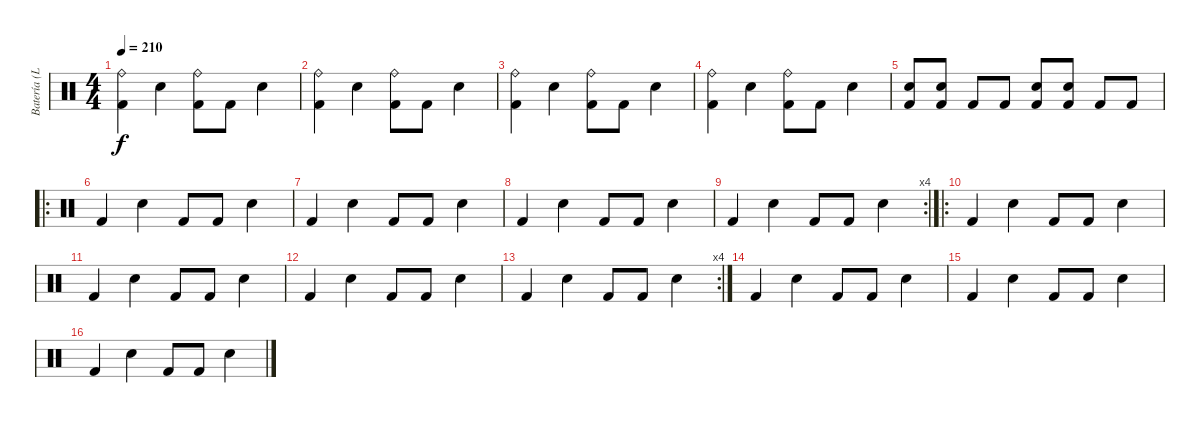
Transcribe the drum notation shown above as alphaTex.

\track ("Batería (Leo)" "Batería (L") {instrument percussion}
\staff {score}
\articulation defaults
\ts (4 4)
\tempo 210
\clef neutral
\ks c
("Ride (bell)" "Kick (hit) 2").4{dy f} "Snare (hit) 2".4 ("Ride (bell)" "Kick (hit) 2").8 "Kick (hit) 2".8 "Snare (hit) 2".4 |
("Ride (bell)" "Kick (hit) 2").4 "Snare (hit) 2".4 ("Ride (bell)" "Kick (hit) 2").8 "Kick (hit) 2".8 "Snare (hit) 2".4 |
("Ride (bell)" "Kick (hit) 2").4 "Snare (hit) 2".4 ("Ride (bell)" "Kick (hit) 2").8 "Kick (hit) 2".8 "Snare (hit) 2".4 |
("Ride (bell)" "Kick (hit) 2").4 "Snare (hit) 2".4 ("Ride (bell)" "Kick (hit) 2").8 "Kick (hit) 2".8 "Snare (hit) 2".4 |
("Kick (hit) 2" "Snare (hit) 2").8 ("Kick (hit) 2" "Snare (hit) 2").8 "Kick (hit) 2".8 "Kick (hit) 2".8 ("Kick (hit) 2" "Snare (hit) 2").8 ("Kick (hit) 2" "Snare (hit) 2").8 "Kick (hit) 2".8 "Kick (hit) 2".8 |
\ro "Kick (hit) 2".4 "Snare (hit) 2".4 "Kick (hit) 2".8 "Kick (hit) 2".8 "Snare (hit) 2".4
|
"Kick (hit) 2".4 "Snare (hit) 2".4 "Kick (hit) 2".8 "Kick (hit) 2".8 "Snare (hit) 2".4 |
"Kick (hit) 2".4 "Snare (hit) 2".4 "Kick (hit) 2".8 "Kick (hit) 2".8 "Snare (hit) 2".4 |
\rc 4 "Kick (hit) 2".4 "Snare (hit) 2".4 "Kick (hit) 2".8 "Kick (hit) 2".8 "Snare (hit) 2".4
|
\ro "Kick (hit) 2".4 "Snare (hit) 2".4 "Kick (hit) 2".8 "Kick (hit) 2".8 "Snare (hit) 2".4
|
"Kick (hit) 2".4 "Snare (hit) 2".4 "Kick (hit) 2".8 "Kick (hit) 2".8 "Snare (hit) 2".4 |
"Kick (hit) 2".4 "Snare (hit) 2".4 "Kick (hit) 2".8 "Kick (hit) 2".8 "Snare (hit) 2".4 |
\rc 4 "Kick (hit) 2".4 "Snare (hit) 2".4 "Kick (hit) 2".8 "Kick (hit) 2".8 "Snare (hit) 2".4
|
"Kick (hit) 2".4 "Snare (hit) 2".4 "Kick (hit) 2".8 "Kick (hit) 2".8 "Snare (hit) 2".4 |
"Kick (hit) 2".4 "Snare (hit) 2".4 "Kick (hit) 2".8 "Kick (hit) 2".8 "Snare (hit) 2".4 |
"Kick (hit) 2".4 "Snare (hit) 2".4 "Kick (hit) 2".8 "Kick (hit) 2".8 "Snare (hit) 2".4
